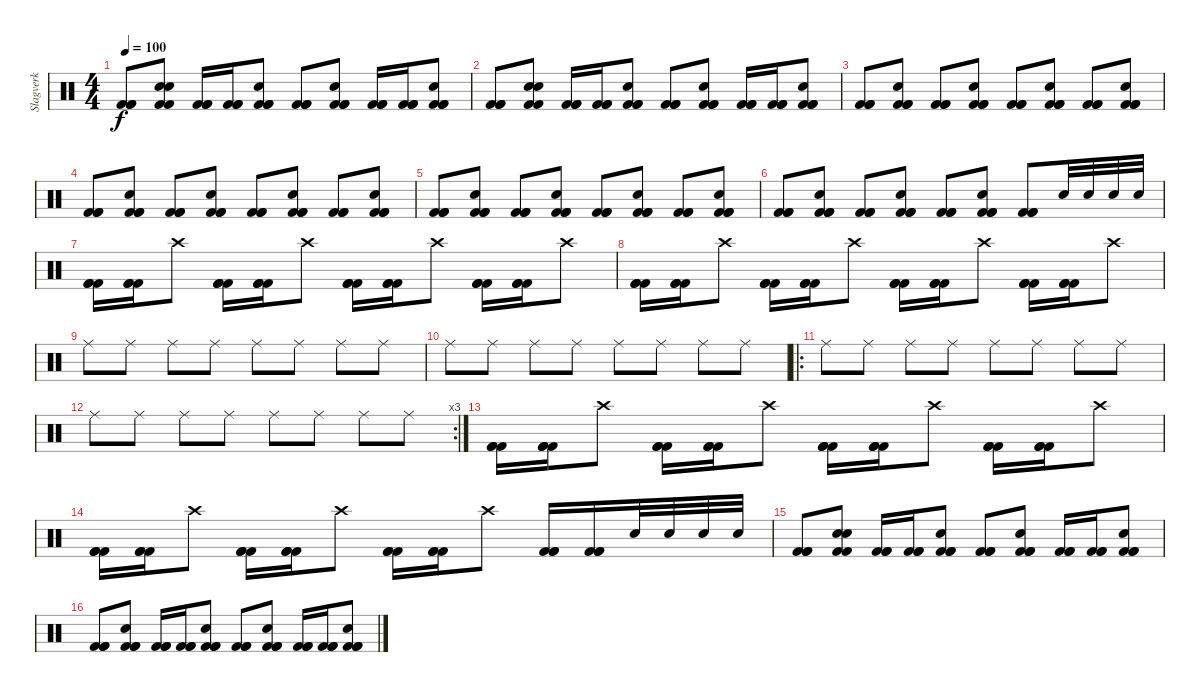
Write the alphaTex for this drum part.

\track ("Slagverk" "Slagverk") {instrument percussion}
\staff {score}
\articulation defaults
\ts (4 4)
\tempo 100
\clef neutral
\ks c
("Kick (hit) 2" "Kick (hit) 2" "Kick (hit) 2").8{dy f} ("Snare (hit) 2" "Kick (hit) 2" "Kick (hit) 2" "Snare (hit)").8 ("Kick (hit) 2" "Kick (hit) 2" "Kick (hit) 2").16 ("Kick (hit) 2" "Kick (hit) 2" "Kick (hit) 2").16 ("Snare (hit) 2" "Kick (hit) 2" "Kick (hit) 2" "Kick (hit) 2").8 ("Kick (hit) 2" "Kick (hit) 2" "Kick (hit) 2").8 ("Snare (hit) 2" "Kick (hit) 2" "Kick (hit) 2" "Kick (hit) 2").8 ("Kick (hit) 2" "Kick (hit) 2" "Kick (hit) 2").16 ("Kick (hit) 2" "Kick (hit) 2" "Kick (hit) 2").16 ("Snare (hit) 2" "Kick (hit) 2" "Kick (hit) 2" "Kick (hit) 2").8 |
("Kick (hit) 2" "Kick (hit) 2" "Kick (hit) 2").8 ("Snare (hit) 2" "Kick (hit) 2" "Kick (hit) 2" "Snare (hit)").8 ("Kick (hit) 2" "Kick (hit) 2" "Kick (hit) 2").16 ("Kick (hit) 2" "Kick (hit) 2" "Kick (hit) 2").16 ("Snare (hit) 2" "Kick (hit) 2" "Kick (hit) 2" "Kick (hit) 2").8 ("Kick (hit) 2" "Kick (hit) 2" "Kick (hit) 2").8 ("Snare (hit) 2" "Kick (hit) 2" "Kick (hit) 2" "Kick (hit) 2").8 ("Kick (hit) 2" "Kick (hit) 2" "Kick (hit) 2").16 ("Kick (hit) 2" "Kick (hit) 2" "Kick (hit) 2").16 ("Snare (hit) 2" "Kick (hit) 2" "Kick (hit) 2" "Kick (hit) 2").8 |
("Kick (hit) 2" "Kick (hit) 2" "Kick (hit) 2").8 ("Snare (hit) 2" "Kick (hit) 2" "Kick (hit) 2" "Kick (hit) 2").8 ("Kick (hit) 2" "Kick (hit) 2" "Kick (hit) 2").8 ("Snare (hit) 2" "Kick (hit) 2" "Kick (hit) 2" "Kick (hit) 2").8 ("Kick (hit) 2" "Kick (hit) 2" "Kick (hit) 2").8 ("Snare (hit) 2" "Kick (hit) 2" "Kick (hit) 2" "Kick (hit) 2").8 ("Kick (hit) 2" "Kick (hit) 2" "Kick (hit) 2").8 ("Snare (hit) 2" "Kick (hit) 2" "Kick (hit) 2" "Kick (hit) 2").8 |
("Kick (hit) 2" "Kick (hit) 2" "Kick (hit) 2").8 ("Snare (hit) 2" "Kick (hit) 2" "Kick (hit) 2" "Kick (hit) 2").8 ("Kick (hit) 2" "Kick (hit) 2" "Kick (hit) 2").8 ("Snare (hit) 2" "Kick (hit) 2" "Kick (hit) 2" "Kick (hit) 2").8 ("Kick (hit) 2" "Kick (hit) 2" "Kick (hit) 2").8 ("Snare (hit) 2" "Kick (hit) 2" "Kick (hit) 2" "Kick (hit) 2").8 ("Kick (hit) 2" "Kick (hit) 2" "Kick (hit) 2").8 ("Snare (hit) 2" "Kick (hit) 2" "Kick (hit) 2" "Kick (hit) 2").8 |
("Kick (hit) 2" "Kick (hit) 2" "Kick (hit) 2").8 ("Snare (hit) 2" "Kick (hit) 2" "Kick (hit) 2" "Kick (hit) 2").8 ("Kick (hit) 2" "Kick (hit) 2" "Kick (hit) 2").8 ("Snare (hit) 2" "Kick (hit) 2" "Kick (hit) 2" "Kick (hit) 2").8 ("Kick (hit) 2" "Kick (hit) 2" "Kick (hit) 2").8 ("Snare (hit) 2" "Kick (hit) 2" "Kick (hit) 2" "Kick (hit) 2").8 ("Kick (hit) 2" "Kick (hit) 2" "Kick (hit) 2").8 ("Snare (hit) 2" "Kick (hit) 2" "Kick (hit) 2" "Kick (hit) 2").8 |
("Kick (hit) 2" "Kick (hit) 2" "Kick (hit) 2").8 ("Snare (hit) 2" "Kick (hit) 2" "Kick (hit) 2" "Kick (hit) 2").8 ("Kick (hit) 2" "Kick (hit) 2" "Kick (hit) 2").8 ("Snare (hit) 2" "Kick (hit) 2" "Kick (hit) 2" "Kick (hit) 2").8 ("Kick (hit) 2" "Kick (hit) 2" "Kick (hit) 2").8 ("Snare (hit) 2" "Kick (hit) 2" "Kick (hit) 2" "Kick (hit) 2").8 ("Kick (hit) 2" "Kick (hit) 2" "Kick (hit) 2").8 "Snare (hit) 2".32 "Snare (hit) 2".32 "Snare (hit) 2".32 "Snare (hit) 2".32 |
("Kick (hit) 2" "Kick (hit) 2" "Kick (hit) 2").16 ("Kick (hit) 2" "Kick (hit) 2" "Kick (hit) 2").16 "Crash high (hit)".8 ("Kick (hit) 2" "Kick (hit) 2" "Kick (hit) 2").16 ("Kick (hit) 2" "Kick (hit) 2" "Kick (hit) 2").16 "Crash high (hit)".8 ("Kick (hit) 2" "Kick (hit) 2" "Kick (hit) 2").16 ("Kick (hit) 2" "Kick (hit) 2" "Kick (hit) 2").16 "Crash high (hit)".8 ("Kick (hit) 2" "Kick (hit) 2" "Kick (hit) 2").16 ("Kick (hit) 2" "Kick (hit) 2" "Kick (hit) 2").16 "Crash high (hit)".8 |
("Kick (hit) 2" "Kick (hit) 2" "Kick (hit) 2").16 ("Kick (hit) 2" "Kick (hit) 2" "Kick (hit) 2").16 "Crash high (hit)".8 ("Kick (hit) 2" "Kick (hit) 2" "Kick (hit) 2").16 ("Kick (hit) 2" "Kick (hit) 2" "Kick (hit) 2").16 "Crash high (hit)".8 ("Kick (hit) 2" "Kick (hit) 2" "Kick (hit) 2").16 ("Kick (hit) 2" "Kick (hit) 2" "Kick (hit) 2").16 "Crash high (hit)".8 ("Kick (hit) 2" "Kick (hit) 2" "Kick (hit) 2").16 ("Kick (hit) 2" "Kick (hit) 2" "Kick (hit) 2").16 "Crash high (hit)".8 |
"Ride (middle)".8 "Ride (middle)".8 "Ride (middle)".8 "Ride (middle)".8 "Ride (middle)".8 "Ride (middle)".8 "Ride (middle)".8 "Ride (middle)".8 |
"Ride (middle)".8 "Ride (middle)".8 "Ride (middle)".8 "Ride (middle)".8 "Ride (middle)".8 "Ride (middle)".8 "Ride (middle)".8 "Ride (middle)".8 |
\ro "Ride (middle)".8 "Ride (middle)".8 "Ride (middle)".8 "Ride (middle)".8 "Ride (middle)".8 "Ride (middle)".8 "Ride (middle)".8 "Ride (middle)".8
|
\rc 3 "Ride (middle)".8 "Ride (middle)".8 "Ride (middle)".8 "Ride (middle)".8 "Ride (middle)".8 "Ride (middle)".8 "Ride (middle)".8 "Ride (middle)".8
|
("Kick (hit) 2" "Kick (hit) 2" "Kick (hit) 2").16 ("Kick (hit) 2" "Kick (hit) 2" "Kick (hit) 2").16 "Crash high (hit)".8 ("Kick (hit) 2" "Kick (hit) 2" "Kick (hit) 2").16 ("Kick (hit) 2" "Kick (hit) 2" "Kick (hit) 2").16 "Crash high (hit)".8 ("Kick (hit) 2" "Kick (hit) 2" "Kick (hit) 2").16 ("Kick (hit) 2" "Kick (hit) 2" "Kick (hit) 2").16 "Crash high (hit)".8 ("Kick (hit) 2" "Kick (hit) 2" "Kick (hit) 2").16 ("Kick (hit) 2" "Kick (hit) 2" "Kick (hit) 2").16 "Crash high (hit)".8 |
("Kick (hit) 2" "Kick (hit) 2" "Kick (hit) 2").16 ("Kick (hit) 2" "Kick (hit) 2" "Kick (hit) 2").16 "Crash high (hit)".8 ("Kick (hit) 2" "Kick (hit) 2" "Kick (hit) 2").16 ("Kick (hit) 2" "Kick (hit) 2" "Kick (hit) 2").16 "Crash high (hit)".8 ("Kick (hit) 2" "Kick (hit) 2" "Kick (hit) 2").16 ("Kick (hit) 2" "Kick (hit) 2" "Kick (hit) 2").16 "Crash high (hit)".8 ("Kick (hit) 2" "Kick (hit) 2" "Kick (hit) 2").16 ("Kick (hit) 2" "Kick (hit) 2" "Kick (hit) 2").16 "Snare (hit) 2".32 "Snare (hit) 2".32 "Snare (hit) 2".32 "Snare (hit) 2".32 |
("Kick (hit) 2" "Kick (hit) 2" "Kick (hit) 2").8 ("Snare (hit) 2" "Kick (hit) 2" "Kick (hit) 2" "Snare (hit)").8 ("Kick (hit) 2" "Kick (hit) 2" "Kick (hit) 2").16 ("Kick (hit) 2" "Kick (hit) 2" "Kick (hit) 2").16 ("Snare (hit) 2" "Kick (hit) 2" "Kick (hit) 2" "Kick (hit) 2").8 ("Kick (hit) 2" "Kick (hit) 2" "Kick (hit) 2").8 ("Snare (hit) 2" "Kick (hit) 2" "Kick (hit) 2" "Kick (hit) 2").8 ("Kick (hit) 2" "Kick (hit) 2" "Kick (hit) 2").16 ("Kick (hit) 2" "Kick (hit) 2" "Kick (hit) 2").16 ("Snare (hit) 2" "Kick (hit) 2" "Kick (hit) 2" "Kick (hit) 2").8 |
("Kick (hit) 2" "Kick (hit) 2" "Kick (hit) 2").8 ("Snare (hit) 2" "Kick (hit) 2" "Kick (hit) 2" "Kick (hit) 2").8 ("Kick (hit) 2" "Kick (hit) 2" "Kick (hit) 2").16 ("Kick (hit) 2" "Kick (hit) 2" "Kick (hit) 2").16 ("Snare (hit) 2" "Kick (hit) 2" "Kick (hit) 2" "Kick (hit) 2").8 ("Kick (hit) 2" "Kick (hit) 2" "Kick (hit) 2").8 ("Snare (hit) 2" "Kick (hit) 2" "Kick (hit) 2" "Kick (hit) 2").8 ("Kick (hit) 2" "Kick (hit) 2" "Kick (hit) 2").16 ("Kick (hit) 2" "Kick (hit) 2" "Kick (hit) 2").16 ("Snare (hit) 2" "Kick (hit) 2" "Kick (hit) 2" "Kick (hit) 2").8
